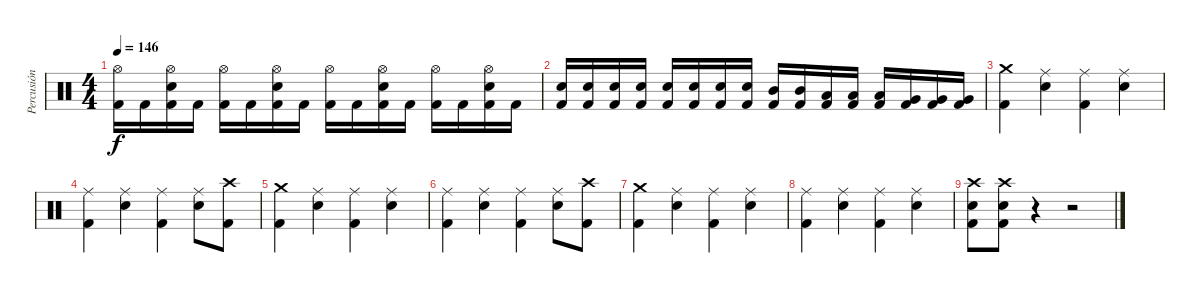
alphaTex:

\track ("Percusión" "Percusión") {instrument percussion}
\staff {score}
\articulation defaults
\ts (4 4)
\tempo 146
\clef neutral
\ks c
("Hi-Hat (open)" "Kick (hit) 2").16{dy f} "Kick (hit) 2".16 ("Hi-Hat (open)" "Snare (hit) 2" "Kick (hit) 2").16 "Kick (hit) 2".16 ("Hi-Hat (open)" "Kick (hit) 2").16 "Kick (hit) 2".16 ("Hi-Hat (open)" "Snare (hit) 2" "Kick (hit) 2").16 "Kick (hit) 2".16 ("Hi-Hat (open)" "Kick (hit) 2").16 "Kick (hit) 2".16 ("Hi-Hat (open)" "Snare (hit) 2" "Kick (hit) 2").16 "Kick (hit) 2".16 ("Hi-Hat (open)" "Kick (hit) 2").16 "Kick (hit) 2".16 ("Hi-Hat (open)" "Snare (hit) 2" "Kick (hit) 2").16 "Kick (hit) 2".16 |
("Snare (hit) 2" "Kick (hit) 2").16 ("Snare (hit) 2" "Kick (hit) 2").16 ("Snare (hit) 2" "Kick (hit) 2").16 ("Snare (hit) 2" "Kick (hit) 2").16 ("Snare (hit) 2" "Kick (hit) 2").16 ("Snare (hit) 2" "Kick (hit) 2").16 ("Snare (hit) 2" "Kick (hit) 2").16 ("Snare (hit) 2" "Kick (hit) 2").16 ("Mid Tom (hit)" "Kick (hit) 2").16 ("Mid Tom (hit)" "Kick (hit) 2").16 ("Low Tom (hit)" "Kick (hit) 2").16 ("Low Tom (hit)" "Kick (hit) 2").16 ("Low Tom (hit)" "Kick (hit) 2").16 ("Very Low Tom (hit)" "Kick (hit) 2").16 ("Very Low Tom (hit)" "Kick (hit) 2").16 ("Very Low Tom (hit)" "Kick (hit) 2").16 |
("Crash medium (hit)" "Kick (hit) 2").4 ("Ride (middle)" "Snare (hit) 2").4 ("Ride (middle)" "Kick (hit) 2").4 ("Ride (middle)" "Snare (hit) 2").4 |
("Ride (middle)" "Kick (hit) 2").4 ("Ride (middle)" "Snare (hit) 2").4 ("Ride (middle)" "Kick (hit) 2").4 ("Ride (middle)" "Snare (hit) 2").8 ("Crash high (hit)" "Kick (hit) 2").8 |
("Crash medium (hit)" "Kick (hit) 2").4 ("Ride (middle)" "Snare (hit) 2").4 ("Ride (middle)" "Kick (hit) 2").4 ("Ride (middle)" "Snare (hit) 2").4 |
("Ride (middle)" "Kick (hit) 2").4 ("Ride (middle)" "Snare (hit) 2").4 ("Ride (middle)" "Kick (hit) 2").4 ("Ride (middle)" "Snare (hit) 2").8 ("Crash high (hit)" "Kick (hit) 2").8 |
("Crash medium (hit)" "Kick (hit) 2").4 ("Ride (middle)" "Snare (hit) 2").4 ("Ride (middle)" "Kick (hit) 2").4 ("Ride (middle)" "Snare (hit) 2").4 |
("Ride (middle)" "Kick (hit) 2").4 ("Ride (middle)" "Snare (hit) 2").4 ("Ride (middle)" "Kick (hit) 2").4 ("Ride (middle)" "Snare (hit) 2").4 |
("Crash high (hit)" "Snare (hit) 2" "Kick (hit) 2").8 ("Crash high (hit)" "Snare (hit) 2" "Kick (hit) 2").8 r.4 r.2
